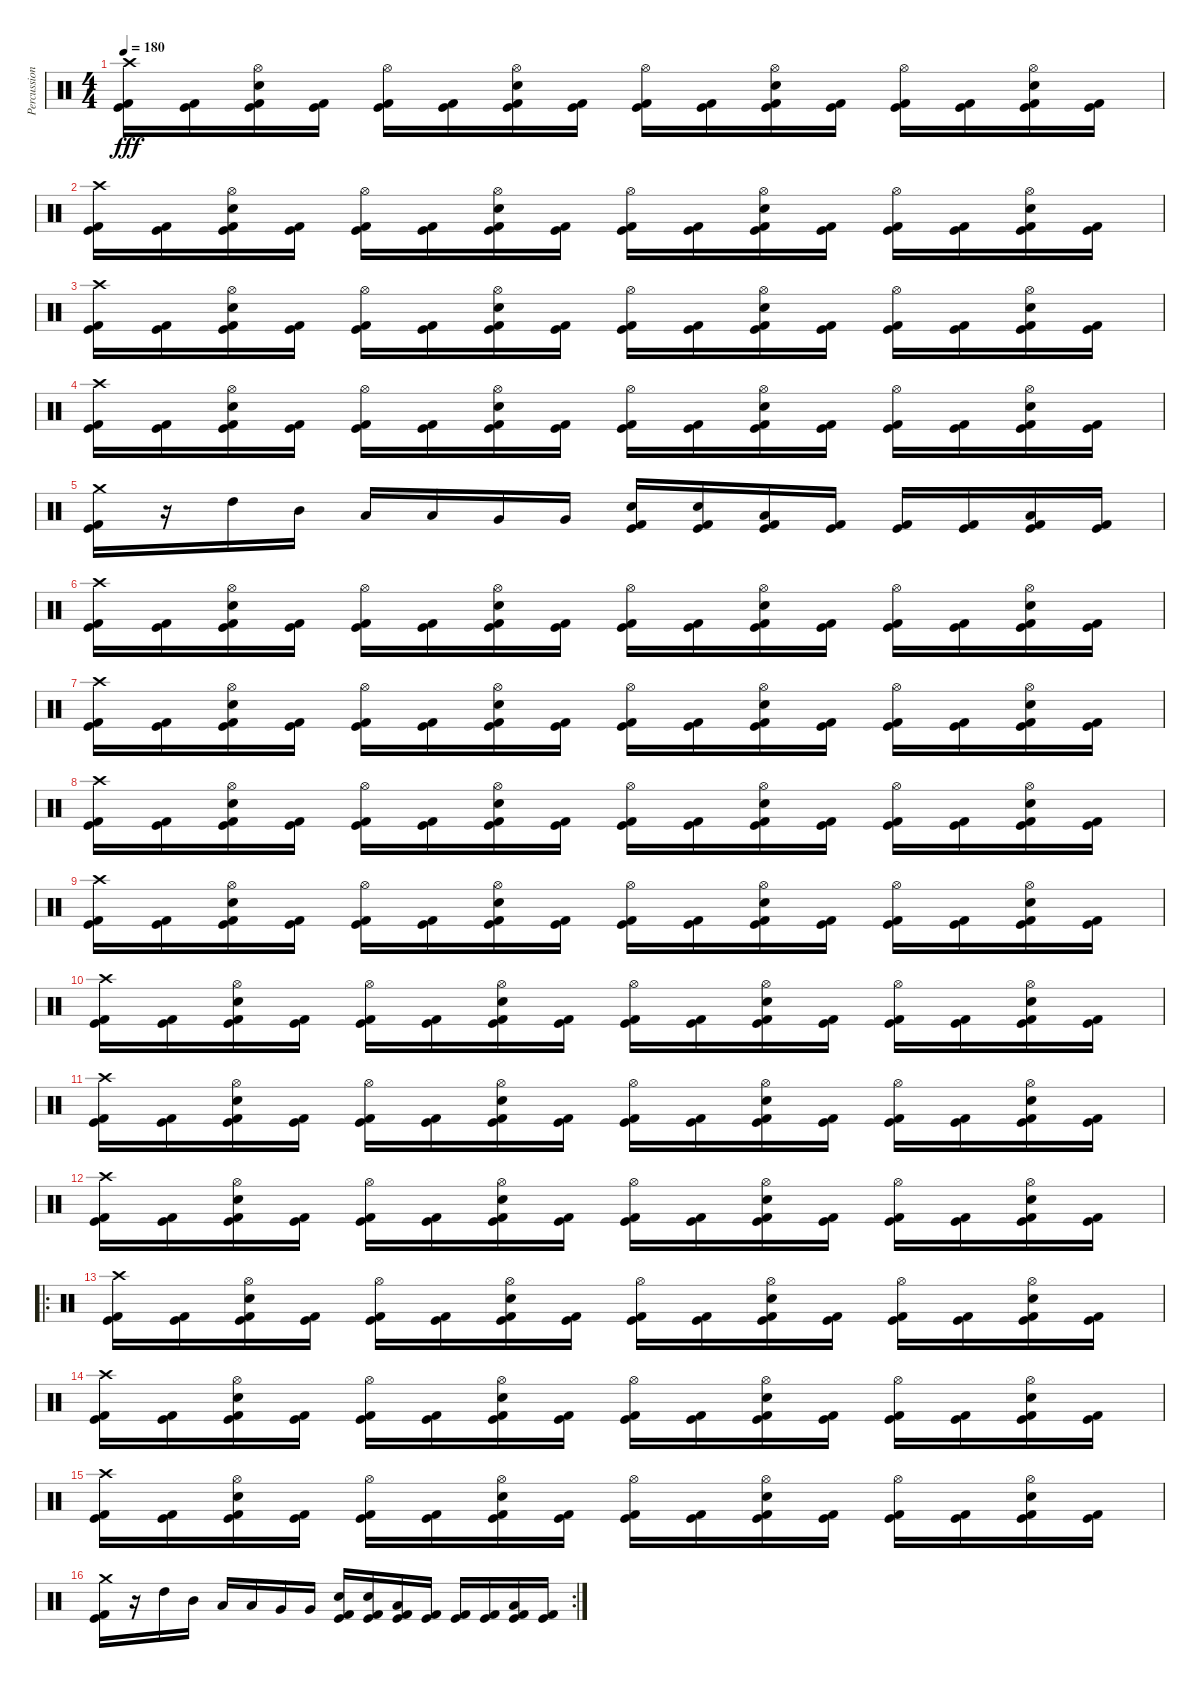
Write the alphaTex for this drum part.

\track ("Percussion" "Percussion") {instrument percussion}
\staff {score}
\articulation defaults
\ts (4 4)
\tempo 180
\clef neutral
\ks c
("Kick (hit) 2" "Kick (hit)" "Crash high (hit)").16{dy fff} ("Kick (hit) 2" "Kick (hit)").16 ("Kick (hit) 2" "Kick (hit)" "Snare (hit) 2" "Hi-Hat (open)").16 ("Kick (hit) 2" "Kick (hit)").16 ("Kick (hit) 2" "Kick (hit)" "Hi-Hat (open)").16 ("Kick (hit) 2" "Kick (hit)").16 ("Kick (hit) 2" "Kick (hit)" "Snare (hit) 2" "Hi-Hat (open)").16 ("Kick (hit) 2" "Kick (hit)").16 ("Kick (hit) 2" "Kick (hit)" "Hi-Hat (open)").16 ("Kick (hit) 2" "Kick (hit)").16 ("Kick (hit) 2" "Kick (hit)" "Snare (hit) 2" "Hi-Hat (open)").16 ("Kick (hit) 2" "Kick (hit)").16 ("Kick (hit) 2" "Kick (hit)" "Hi-Hat (open)").16 ("Kick (hit) 2" "Kick (hit)").16 ("Kick (hit) 2" "Kick (hit)" "Snare (hit) 2" "Hi-Hat (open)").16 ("Kick (hit) 2" "Kick (hit)").16 |
("Kick (hit) 2" "Kick (hit)" "Crash high (hit)").16 ("Kick (hit) 2" "Kick (hit)").16 ("Kick (hit) 2" "Kick (hit)" "Snare (hit) 2" "Hi-Hat (open)").16 ("Kick (hit) 2" "Kick (hit)").16 ("Kick (hit) 2" "Kick (hit)" "Hi-Hat (open)").16 ("Kick (hit) 2" "Kick (hit)").16 ("Kick (hit) 2" "Kick (hit)" "Snare (hit) 2" "Hi-Hat (open)").16 ("Kick (hit) 2" "Kick (hit)").16 ("Kick (hit) 2" "Kick (hit)" "Hi-Hat (open)").16 ("Kick (hit) 2" "Kick (hit)").16 ("Kick (hit) 2" "Kick (hit)" "Snare (hit) 2" "Hi-Hat (open)").16 ("Kick (hit) 2" "Kick (hit)").16 ("Kick (hit) 2" "Kick (hit)" "Hi-Hat (open)").16 ("Kick (hit) 2" "Kick (hit)").16 ("Kick (hit) 2" "Kick (hit)" "Snare (hit) 2" "Hi-Hat (open)").16 ("Kick (hit) 2" "Kick (hit)").16 |
("Kick (hit) 2" "Kick (hit)" "Crash high (hit)").16 ("Kick (hit) 2" "Kick (hit)").16 ("Kick (hit) 2" "Kick (hit)" "Snare (hit) 2" "Hi-Hat (open)").16 ("Kick (hit) 2" "Kick (hit)").16 ("Kick (hit) 2" "Kick (hit)" "Hi-Hat (open)").16 ("Kick (hit) 2" "Kick (hit)").16 ("Kick (hit) 2" "Kick (hit)" "Snare (hit) 2" "Hi-Hat (open)").16 ("Kick (hit) 2" "Kick (hit)").16 ("Kick (hit) 2" "Kick (hit)" "Hi-Hat (open)").16 ("Kick (hit) 2" "Kick (hit)").16 ("Kick (hit) 2" "Kick (hit)" "Snare (hit) 2" "Hi-Hat (open)").16 ("Kick (hit) 2" "Kick (hit)").16 ("Kick (hit) 2" "Kick (hit)" "Hi-Hat (open)").16 ("Kick (hit) 2" "Kick (hit)").16 ("Kick (hit) 2" "Kick (hit)" "Snare (hit) 2" "Hi-Hat (open)").16 ("Kick (hit) 2" "Kick (hit)").16 |
("Kick (hit) 2" "Kick (hit)" "Crash high (hit)").16 ("Kick (hit) 2" "Kick (hit)").16 ("Kick (hit) 2" "Kick (hit)" "Snare (hit) 2" "Hi-Hat (open)").16 ("Kick (hit) 2" "Kick (hit)").16 ("Kick (hit) 2" "Kick (hit)" "Hi-Hat (open)").16 ("Kick (hit) 2" "Kick (hit)").16 ("Kick (hit) 2" "Kick (hit)" "Snare (hit) 2" "Hi-Hat (open)").16 ("Kick (hit) 2" "Kick (hit)").16 ("Kick (hit) 2" "Kick (hit)" "Hi-Hat (open)").16 ("Kick (hit) 2" "Kick (hit)").16 ("Kick (hit) 2" "Kick (hit)" "Snare (hit) 2" "Hi-Hat (open)").16 ("Kick (hit) 2" "Kick (hit)").16 ("Kick (hit) 2" "Kick (hit)" "Hi-Hat (open)").16 ("Kick (hit) 2" "Kick (hit)").16 ("Kick (hit) 2" "Kick (hit)" "Snare (hit) 2" "Hi-Hat (open)").16 ("Kick (hit) 2" "Kick (hit)").16 |
("Kick (hit) 2" "Kick (hit)" "Crash medium (hit)").16 r.16 "High Tom (hit)".16 "Mid Tom (hit)".16 "Low Tom (hit)".16 "Low Tom (hit)".16 "Very Low Tom (hit)".16 "Very Low Tom (hit)".16 ("Kick (hit) 2" "Kick (hit)" "Snare (hit) 2").16 ("Kick (hit) 2" "Kick (hit)" "Snare (hit) 2").16 ("Kick (hit) 2" "Kick (hit)" "Low Tom (hit)").16 ("Kick (hit) 2" "Kick (hit)").16 ("Kick (hit) 2" "Kick (hit)").16 ("Kick (hit) 2" "Kick (hit)").16 ("Kick (hit) 2" "Kick (hit)" "Low Floor Tom (hit)").16 ("Kick (hit) 2" "Kick (hit)").16 |
("Kick (hit) 2" "Kick (hit)" "Crash high (hit)").16 ("Kick (hit) 2" "Kick (hit)").16 ("Kick (hit) 2" "Kick (hit)" "Snare (hit) 2" "Hi-Hat (open)").16 ("Kick (hit) 2" "Kick (hit)").16 ("Kick (hit) 2" "Kick (hit)" "Hi-Hat (open)").16 ("Kick (hit) 2" "Kick (hit)").16 ("Kick (hit) 2" "Kick (hit)" "Snare (hit) 2" "Hi-Hat (open)").16 ("Kick (hit) 2" "Kick (hit)").16 ("Kick (hit) 2" "Kick (hit)" "Hi-Hat (open)").16 ("Kick (hit) 2" "Kick (hit)").16 ("Kick (hit) 2" "Kick (hit)" "Snare (hit) 2" "Hi-Hat (open)").16 ("Kick (hit) 2" "Kick (hit)").16 ("Kick (hit) 2" "Kick (hit)" "Hi-Hat (open)").16 ("Kick (hit) 2" "Kick (hit)").16 ("Kick (hit) 2" "Kick (hit)" "Snare (hit) 2" "Hi-Hat (open)").16 ("Kick (hit) 2" "Kick (hit)").16 |
("Kick (hit) 2" "Kick (hit)" "Crash high (hit)").16 ("Kick (hit) 2" "Kick (hit)").16 ("Kick (hit) 2" "Kick (hit)" "Snare (hit) 2" "Hi-Hat (open)").16 ("Kick (hit) 2" "Kick (hit)").16 ("Kick (hit) 2" "Kick (hit)" "Hi-Hat (open)").16 ("Kick (hit) 2" "Kick (hit)").16 ("Kick (hit) 2" "Kick (hit)" "Snare (hit) 2" "Hi-Hat (open)").16 ("Kick (hit) 2" "Kick (hit)").16 ("Kick (hit) 2" "Kick (hit)" "Hi-Hat (open)").16 ("Kick (hit) 2" "Kick (hit)").16 ("Kick (hit) 2" "Kick (hit)" "Snare (hit) 2" "Hi-Hat (open)").16 ("Kick (hit) 2" "Kick (hit)").16 ("Kick (hit) 2" "Kick (hit)" "Hi-Hat (open)").16 ("Kick (hit) 2" "Kick (hit)").16 ("Kick (hit) 2" "Kick (hit)" "Snare (hit) 2" "Hi-Hat (open)").16 ("Kick (hit) 2" "Kick (hit)").16 |
("Kick (hit) 2" "Kick (hit)" "Crash high (hit)").16 ("Kick (hit) 2" "Kick (hit)").16 ("Kick (hit) 2" "Kick (hit)" "Snare (hit) 2" "Hi-Hat (open)").16 ("Kick (hit) 2" "Kick (hit)").16 ("Kick (hit) 2" "Kick (hit)" "Hi-Hat (open)").16 ("Kick (hit) 2" "Kick (hit)").16 ("Kick (hit) 2" "Kick (hit)" "Snare (hit) 2" "Hi-Hat (open)").16 ("Kick (hit) 2" "Kick (hit)").16 ("Kick (hit) 2" "Kick (hit)" "Hi-Hat (open)").16 ("Kick (hit) 2" "Kick (hit)").16 ("Kick (hit) 2" "Kick (hit)" "Snare (hit) 2" "Hi-Hat (open)").16 ("Kick (hit) 2" "Kick (hit)").16 ("Kick (hit) 2" "Kick (hit)" "Hi-Hat (open)").16 ("Kick (hit) 2" "Kick (hit)").16 ("Kick (hit) 2" "Kick (hit)" "Snare (hit) 2" "Hi-Hat (open)").16 ("Kick (hit) 2" "Kick (hit)").16 |
("Kick (hit) 2" "Kick (hit)" "Crash high (hit)").16 ("Kick (hit) 2" "Kick (hit)").16 ("Kick (hit) 2" "Kick (hit)" "Snare (hit) 2" "Hi-Hat (open)").16 ("Kick (hit) 2" "Kick (hit)").16 ("Kick (hit) 2" "Kick (hit)" "Hi-Hat (open)").16 ("Kick (hit) 2" "Kick (hit)").16 ("Kick (hit) 2" "Kick (hit)" "Snare (hit) 2" "Hi-Hat (open)").16 ("Kick (hit) 2" "Kick (hit)").16 ("Kick (hit) 2" "Kick (hit)" "Hi-Hat (open)").16 ("Kick (hit) 2" "Kick (hit)").16 ("Kick (hit) 2" "Kick (hit)" "Snare (hit) 2" "Hi-Hat (open)").16 ("Kick (hit) 2" "Kick (hit)").16 ("Kick (hit) 2" "Kick (hit)" "Hi-Hat (open)").16 ("Kick (hit) 2" "Kick (hit)").16 ("Kick (hit) 2" "Kick (hit)" "Snare (hit) 2" "Hi-Hat (open)").16 ("Kick (hit) 2" "Kick (hit)").16 |
("Kick (hit) 2" "Kick (hit)" "Crash high (hit)").16 ("Kick (hit) 2" "Kick (hit)").16 ("Kick (hit) 2" "Kick (hit)" "Snare (hit) 2" "Hi-Hat (open)").16 ("Kick (hit) 2" "Kick (hit)").16 ("Kick (hit) 2" "Kick (hit)" "Hi-Hat (open)").16 ("Kick (hit) 2" "Kick (hit)").16 ("Kick (hit) 2" "Kick (hit)" "Snare (hit) 2" "Hi-Hat (open)").16 ("Kick (hit) 2" "Kick (hit)").16 ("Kick (hit) 2" "Kick (hit)" "Hi-Hat (open)").16 ("Kick (hit) 2" "Kick (hit)").16 ("Kick (hit) 2" "Kick (hit)" "Snare (hit) 2" "Hi-Hat (open)").16 ("Kick (hit) 2" "Kick (hit)").16 ("Kick (hit) 2" "Kick (hit)" "Hi-Hat (open)").16 ("Kick (hit) 2" "Kick (hit)").16 ("Kick (hit) 2" "Kick (hit)" "Snare (hit) 2" "Hi-Hat (open)").16 ("Kick (hit) 2" "Kick (hit)").16 |
("Kick (hit) 2" "Kick (hit)" "Crash high (hit)").16 ("Kick (hit) 2" "Kick (hit)").16 ("Kick (hit) 2" "Kick (hit)" "Snare (hit) 2" "Hi-Hat (open)").16 ("Kick (hit) 2" "Kick (hit)").16 ("Kick (hit) 2" "Kick (hit)" "Hi-Hat (open)").16 ("Kick (hit) 2" "Kick (hit)").16 ("Kick (hit) 2" "Kick (hit)" "Snare (hit) 2" "Hi-Hat (open)").16 ("Kick (hit) 2" "Kick (hit)").16 ("Kick (hit) 2" "Kick (hit)" "Hi-Hat (open)").16 ("Kick (hit) 2" "Kick (hit)").16 ("Kick (hit) 2" "Kick (hit)" "Snare (hit) 2" "Hi-Hat (open)").16 ("Kick (hit) 2" "Kick (hit)").16 ("Kick (hit) 2" "Kick (hit)" "Hi-Hat (open)").16 ("Kick (hit) 2" "Kick (hit)").16 ("Kick (hit) 2" "Kick (hit)" "Snare (hit) 2" "Hi-Hat (open)").16 ("Kick (hit) 2" "Kick (hit)").16 |
("Kick (hit) 2" "Kick (hit)" "Crash high (hit)").16 ("Kick (hit) 2" "Kick (hit)").16 ("Kick (hit) 2" "Kick (hit)" "Snare (hit) 2" "Hi-Hat (open)").16 ("Kick (hit) 2" "Kick (hit)").16 ("Kick (hit) 2" "Kick (hit)" "Hi-Hat (open)").16 ("Kick (hit) 2" "Kick (hit)").16 ("Kick (hit) 2" "Kick (hit)" "Snare (hit) 2" "Hi-Hat (open)").16 ("Kick (hit) 2" "Kick (hit)").16 ("Kick (hit) 2" "Kick (hit)" "Hi-Hat (open)").16 ("Kick (hit) 2" "Kick (hit)").16 ("Kick (hit) 2" "Kick (hit)" "Snare (hit) 2" "Hi-Hat (open)").16 ("Kick (hit) 2" "Kick (hit)").16 ("Kick (hit) 2" "Kick (hit)" "Hi-Hat (open)").16 ("Kick (hit) 2" "Kick (hit)").16 ("Kick (hit) 2" "Kick (hit)" "Snare (hit) 2" "Hi-Hat (open)").16 ("Kick (hit) 2" "Kick (hit)").16 |
\ro
("Kick (hit) 2" "Kick (hit)" "Crash high (hit)").16 ("Kick (hit) 2" "Kick (hit)").16 ("Kick (hit) 2" "Kick (hit)" "Snare (hit) 2" "Hi-Hat (open)").16 ("Kick (hit) 2" "Kick (hit)").16 ("Kick (hit) 2" "Kick (hit)" "Hi-Hat (open)").16 ("Kick (hit) 2" "Kick (hit)").16 ("Kick (hit) 2" "Kick (hit)" "Snare (hit) 2" "Hi-Hat (open)").16 ("Kick (hit) 2" "Kick (hit)").16 ("Kick (hit) 2" "Kick (hit)" "Hi-Hat (open)").16 ("Kick (hit) 2" "Kick (hit)").16 ("Kick (hit) 2" "Kick (hit)" "Snare (hit) 2" "Hi-Hat (open)").16 ("Kick (hit) 2" "Kick (hit)").16 ("Kick (hit) 2" "Kick (hit)" "Hi-Hat (open)").16 ("Kick (hit) 2" "Kick (hit)").16 ("Kick (hit) 2" "Kick (hit)" "Snare (hit) 2" "Hi-Hat (open)").16 ("Kick (hit) 2" "Kick (hit)").16 |
("Kick (hit) 2" "Kick (hit)" "Crash high (hit)").16 ("Kick (hit) 2" "Kick (hit)").16 ("Kick (hit) 2" "Kick (hit)" "Snare (hit) 2" "Hi-Hat (open)").16 ("Kick (hit) 2" "Kick (hit)").16 ("Kick (hit) 2" "Kick (hit)" "Hi-Hat (open)").16 ("Kick (hit) 2" "Kick (hit)").16 ("Kick (hit) 2" "Kick (hit)" "Snare (hit) 2" "Hi-Hat (open)").16 ("Kick (hit) 2" "Kick (hit)").16 ("Kick (hit) 2" "Kick (hit)" "Hi-Hat (open)").16 ("Kick (hit) 2" "Kick (hit)").16 ("Kick (hit) 2" "Kick (hit)" "Snare (hit) 2" "Hi-Hat (open)").16 ("Kick (hit) 2" "Kick (hit)").16 ("Kick (hit) 2" "Kick (hit)" "Hi-Hat (open)").16 ("Kick (hit) 2" "Kick (hit)").16 ("Kick (hit) 2" "Kick (hit)" "Snare (hit) 2" "Hi-Hat (open)").16 ("Kick (hit) 2" "Kick (hit)").16 |
("Kick (hit) 2" "Kick (hit)" "Crash high (hit)").16 ("Kick (hit) 2" "Kick (hit)").16 ("Kick (hit) 2" "Kick (hit)" "Snare (hit) 2" "Hi-Hat (open)").16 ("Kick (hit) 2" "Kick (hit)").16 ("Kick (hit) 2" "Kick (hit)" "Hi-Hat (open)").16 ("Kick (hit) 2" "Kick (hit)").16 ("Kick (hit) 2" "Kick (hit)" "Snare (hit) 2" "Hi-Hat (open)").16 ("Kick (hit) 2" "Kick (hit)").16 ("Kick (hit) 2" "Kick (hit)" "Hi-Hat (open)").16 ("Kick (hit) 2" "Kick (hit)").16 ("Kick (hit) 2" "Kick (hit)" "Snare (hit) 2" "Hi-Hat (open)").16 ("Kick (hit) 2" "Kick (hit)").16 ("Kick (hit) 2" "Kick (hit)" "Hi-Hat (open)").16 ("Kick (hit) 2" "Kick (hit)").16 ("Kick (hit) 2" "Kick (hit)" "Snare (hit) 2" "Hi-Hat (open)").16 ("Kick (hit) 2" "Kick (hit)").16 |
\rc 2
("Kick (hit) 2" "Kick (hit)" "Crash medium (hit)").16 r.16 "High Tom (hit)".16 "Mid Tom (hit)".16 "Low Tom (hit)".16 "Low Tom (hit)".16 "Very Low Tom (hit)".16 "Very Low Tom (hit)".16 ("Kick (hit) 2" "Kick (hit)" "Snare (hit) 2").16 ("Kick (hit) 2" "Kick (hit)" "Snare (hit) 2").16 ("Kick (hit) 2" "Kick (hit)" "Low Tom (hit)").16 ("Kick (hit) 2" "Kick (hit)").16 ("Kick (hit) 2" "Kick (hit)").16 ("Kick (hit) 2" "Kick (hit)").16 ("Kick (hit) 2" "Kick (hit)" "Low Floor Tom (hit)").16 ("Kick (hit) 2" "Kick (hit)").16
